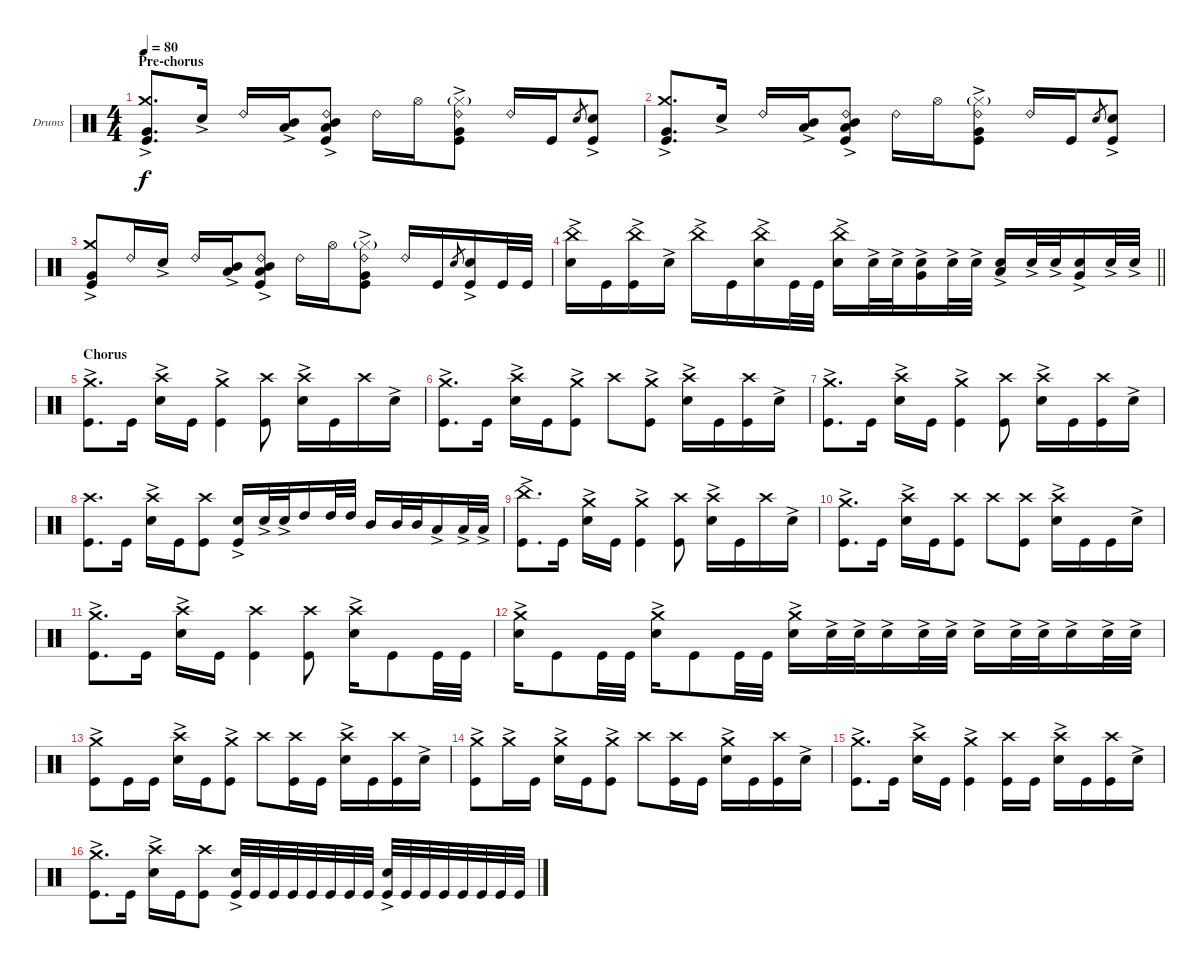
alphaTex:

\bracketExtendMode groupsimilarinstruments
\firstSystemTrackNameOrientation horizontal
\otherSystemsTrackNameOrientation horizontal
\track ("Drumkit" "Drums") {instrument percussion}
\staff {score}
\articulation defaults
\ts (4 4)
\section ("" "Pre-chorus")
\tempo 80
\clef neutral
\ks c
("Kick (hit)" "Crash medium (hit)"{ac} "Very Low Tom (hit)"{ac}).8{d dy f} "Snare (hit) 2"{ac}.16 "Ride (bell) 2".16 ("Mid Tom (hit)" "Low Tom (hit)"{ac}).16 ("Mid Tom (hit)" "Low Tom (hit)"{ac} "Ride (bell) 2" "Kick (hit)").8 "Ride (bell) 2".16 "Hi-Hat (open)".16 ("Very Low Tom (hit)"{ac} "Ride (bell) 2" "Kick (hit)" "Hi-Hat (closed)"{g}).8 "Ride (bell) 2".16 "Kick (hit)".16 "Snare (hit) 2".8{gr} ("Snare (hit) 2"{ac} "Kick (hit)").8 |
("Kick (hit)" "Crash medium (hit)"{ac} "Very Low Tom (hit)"{ac}).8{d} "Snare (hit) 2"{ac}.16 "Ride (bell) 2".16 ("Mid Tom (hit)" "Low Tom (hit)"{ac}).16 ("Mid Tom (hit)" "Low Tom (hit)"{ac} "Ride (bell) 2" "Kick (hit)").8 "Ride (bell) 2".16 "Hi-Hat (open)".16 ("Very Low Tom (hit)"{ac} "Ride (bell) 2" "Kick (hit)" "Hi-Hat (closed)"{g}).8 "Ride (bell) 2".16 "Kick (hit)".16 "Snare (hit) 2".8{gr} ("Snare (hit) 2"{ac} "Kick (hit)").8 |
("Kick (hit)" "Crash medium (hit)"{ac} "Very Low Tom (hit)"{ac}).8 "Ride (bell) 2".16 "Snare (hit) 2"{ac}.16 "Ride (bell) 2".16 ("Mid Tom (hit)" "Low Tom (hit)"{ac}).16 ("Mid Tom (hit)" "Low Tom (hit)"{ac} "Ride (bell) 2" "Kick (hit)").8 "Ride (bell) 2".16 "Hi-Hat (open)".16 ("Very Low Tom (hit)"{ac} "Ride (bell) 2" "Kick (hit)" "Hi-Hat (closed)"{g}).8 "Ride (bell) 2".16 "Kick (hit)".16 "Snare (hit) 2".8{gr} ("Snare (hit) 2"{ac} "Kick (hit)").16 "Kick (hit)".32 "Kick (hit)".32 |
\barLineRight lightlight
("China (hit)"{ac} "Snare (hit) 2"{ac}).16 "Kick (hit)".16 ("China (hit)"{ac} "Kick (hit)").16 "Snare (hit) 2"{ac}.16 "China (hit)"{ac}.16 "Kick (hit)".16 ("China (hit)"{ac} "Snare (hit) 2"{ac}).16 "Kick (hit)".32 "Kick (hit)".32 ("China (hit)"{ac} "Snare (hit) 2"{ac}).16 "Snare (hit) 2"{ac}.32 "Snare (hit) 2"{ac}.32 ("Snare (hit) 2"{ac} "Very Low Tom (hit)"{ac}).16 "Snare (hit) 2"{ac}.32 "Snare (hit) 2"{ac}.32 ("Snare (hit) 2"{ac} "Low Tom (hit)"{ac}).16 "Snare (hit) 2"{ac}.32 "Snare (hit) 2"{ac}.32 ("Snare (hit) 2"{ac} "Very Low Tom (hit)"{ac}).16 "Snare (hit) 2"{ac}.32 "Snare (hit) 2"{ac}.32 |
\section ("" "Chorus")
("Crash medium (hit)"{ac} "Kick (hit)").8{d} "Kick (hit)".16 ("Snare (hit) 2"{ac} "Crash high (hit)").16 "Kick (hit)".16 ("Crash medium (hit)"{ac} "Kick (hit)").4 ("Kick (hit)" "Crash high (hit)").8 ("Snare (hit) 2"{ac} "Crash high (hit)").16 "Kick (hit)".16 "Crash high (hit)".16 "Snare (hit) 2"{ac}.16 |
("Crash medium (hit)"{ac} "Kick (hit)").8{d} "Kick (hit)".16 ("Snare (hit) 2"{ac} "Crash high (hit)").16 "Kick (hit)".16 ("Crash medium (hit)"{ac} "Kick (hit)").8 "Crash high (hit)".8 ("Crash medium (hit)"{ac} "Kick (hit)").8 ("Snare (hit) 2"{ac} "Crash high (hit)").16 "Kick (hit)".16 ("Kick (hit)" "Crash high (hit)").16 "Snare (hit) 2"{ac}.16 |
("Crash medium (hit)"{ac} "Kick (hit)").8{d} "Kick (hit)".16 ("Snare (hit) 2"{ac} "Crash high (hit)").16 "Kick (hit)".16 ("Crash medium (hit)"{ac} "Kick (hit)").4 ("Kick (hit)" "Crash high (hit)").8 ("Snare (hit) 2"{ac} "Crash high (hit)").16 "Kick (hit)".16 ("Kick (hit)" "Crash high (hit)").16 "Snare (hit) 2"{ac}.16 |
("Kick (hit)" "Crash high (hit)").8{d} "Kick (hit)".16 ("Snare (hit) 2"{ac} "Crash high (hit)").16 "Kick (hit)".16 ("Kick (hit)" "Crash high (hit)").8 ("Snare (hit) 2"{ac} "Kick (hit)").16 "Snare (hit) 2"{ac}.32 "Snare (hit) 2"{ac}.32 "High Tom (hit)".16 "High Tom (hit)".32 "High Tom (hit)".32 "Mid Tom (hit)".16 "Mid Tom (hit)".32 "Mid Tom (hit)".32 "Low Tom (hit)"{ac}.16 "Low Tom (hit)"{ac}.32 "Low Tom (hit)"{ac}.32 |
("China (hit)"{ac} "Kick (hit)").8{d} "Kick (hit)".16 ("Crash medium (hit)"{ac} "Snare (hit) 2"{ac}).16 "Kick (hit)".16 ("Crash medium (hit)"{ac} "Kick (hit)").4 ("Kick (hit)" "Crash high (hit)").8 ("Snare (hit) 2"{ac} "Crash high (hit)").16 "Kick (hit)".16 "Crash high (hit)".16 "Snare (hit) 2"{ac}.16 |
("Crash medium (hit)"{ac} "Kick (hit)").8{d} "Kick (hit)".16 ("Snare (hit) 2"{ac} "Crash high (hit)").16 "Kick (hit)".16 ("Kick (hit)" "Crash high (hit)").8 "Crash high (hit)".8 ("Kick (hit)" "Crash high (hit)").8 ("Snare (hit) 2"{ac} "Crash high (hit)").16 "Kick (hit)".16 "Kick (hit)".16 "Snare (hit) 2"{ac}.16 |
("Crash medium (hit)"{ac} "Kick (hit)").8{d} "Kick (hit)".16 ("Snare (hit) 2"{ac} "Crash high (hit)").16 "Kick (hit)".16 ("Kick (hit)" "Crash high (hit)").4 ("Kick (hit)" "Crash high (hit)").8 ("Snare (hit) 2"{ac} "Crash high (hit)").16 "Kick (hit)".8 "Kick (hit)".32 "Kick (hit)".32 |
("Crash medium (hit)"{ac} "Snare (hit) 2"{ac}).16 "Kick (hit)".8 "Kick (hit)".32 "Kick (hit)".32 ("Crash medium (hit)"{ac} "Snare (hit) 2"{ac}).16 "Kick (hit)".8 "Kick (hit)".32 "Kick (hit)".32 ("Crash medium (hit)"{ac} "Snare (hit) 2"{ac}).16 "Snare (hit) 2"{ac}.32 "Snare (hit) 2"{ac}.32 "Snare (hit) 2"{ac}.16 "Snare (hit) 2"{ac}.32 "Snare (hit) 2"{ac}.32 "Snare (hit) 2"{ac}.16 "Snare (hit) 2"{ac}.32 "Snare (hit) 2"{ac}.32 "Snare (hit) 2"{ac}.16 "Snare (hit) 2"{ac}.32 "Snare (hit) 2"{ac}.32 |
("Crash medium (hit)"{ac} "Kick (hit)").8 "Kick (hit)".16 "Kick (hit)".16 ("Snare (hit) 2"{ac} "Crash high (hit)").16 "Kick (hit)".16 ("Crash medium (hit)"{ac} "Kick (hit)").8 "Crash high (hit)".8 ("Kick (hit)" "Crash high (hit)").16 "Kick (hit)".16 ("Snare (hit) 2"{ac} "Crash high (hit)").16 "Kick (hit)".16 ("Kick (hit)" "Crash high (hit)").16 "Snare (hit) 2"{ac}.16 |
("Crash medium (hit)"{ac} "Kick (hit)").8 "Crash medium (hit)"{ac}.16 "Kick (hit)".16 ("Crash medium (hit)"{ac} "Snare (hit) 2"{ac}).16 "Kick (hit)".16 ("Crash medium (hit)"{ac} "Kick (hit)").8 "Crash high (hit)".8 ("Kick (hit)" "Crash high (hit)").16 "Kick (hit)".16 ("Crash medium (hit)"{ac} "Snare (hit) 2"{ac}).16 "Kick (hit)".16 ("Kick (hit)" "Crash high (hit)").16 "Snare (hit) 2"{ac}.16 |
("Crash medium (hit)"{ac} "Kick (hit)").8{d} "Kick (hit)".16 ("Snare (hit) 2"{ac} "Crash high (hit)").16 "Kick (hit)".16 ("Crash medium (hit)"{ac} "Kick (hit)").4 ("Kick (hit)" "Crash high (hit)").16 "Kick (hit)".16 ("Snare (hit) 2"{ac} "Crash high (hit)").16 "Kick (hit)".16 ("Kick (hit)" "Crash high (hit)").16 "Snare (hit) 2"{ac}.16 |
("Crash medium (hit)"{ac} "Kick (hit)").8{d} "Kick (hit)".16 ("Snare (hit) 2"{ac} "Crash high (hit)").16 "Kick (hit)".16 ("Kick (hit)" "Crash high (hit)").8 ("Snare (hit) 2"{ac} "Kick (hit)").32 "Kick (hit)".32 "Kick (hit)".32 "Kick (hit)".32 "Kick (hit)".32 "Kick (hit)".32 "Kick (hit)".32 "Kick (hit)".32 ("Snare (hit) 2"{ac} "Kick (hit)").32 "Kick (hit)".32 "Kick (hit)".32 "Kick (hit)".32 "Kick (hit)".32 "Kick (hit)".32 "Kick (hit)".32 "Kick (hit)".32
